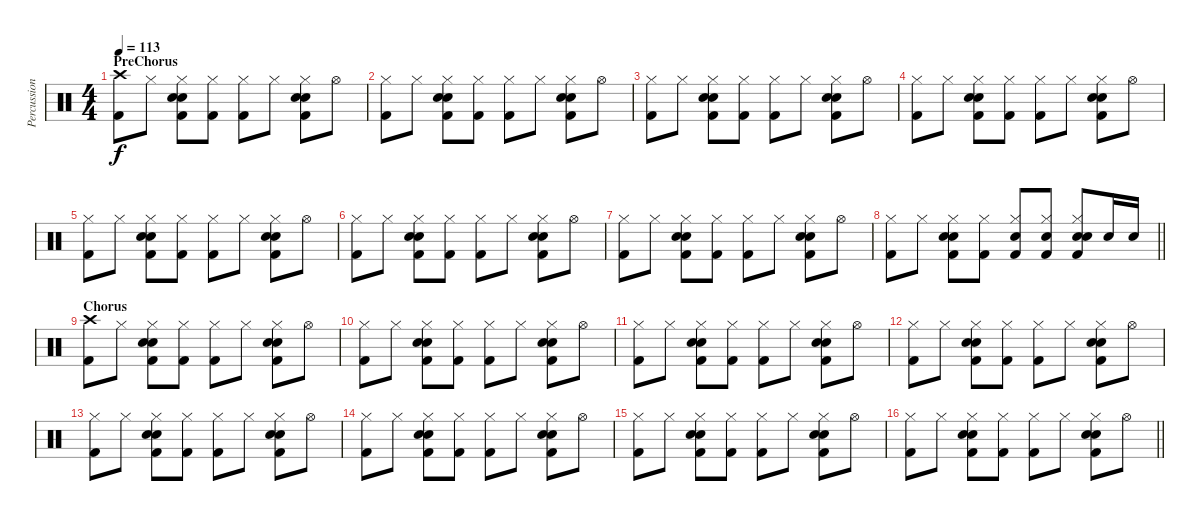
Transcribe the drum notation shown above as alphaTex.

\track ("Percussion" "Percussion") {instrument percussion}
\staff {score}
\articulation defaults
\ts (4 4)
\section ("" "PreChorus")
\tempo 113
\clef neutral
\ks c
("Crash high (hit)" "Kick (hit) 2").8{dy f} "Hi-Hat (closed)".8 ("Hand Clap (hit)" "Hi-Hat (closed)" "Electric Snare (hit)" "Kick (hit) 2").8 ("Hi-Hat (closed)" "Kick (hit) 2").8 ("Hi-Hat (closed)" "Kick (hit) 2").8 "Hi-Hat (closed)".8 ("Hand Clap (hit)" "Hi-Hat (closed)" "Electric Snare (hit)" "Kick (hit) 2").8 "Hi-Hat (open)".8 |
("Hi-Hat (closed)" "Kick (hit) 2").8 "Hi-Hat (closed)".8 ("Hand Clap (hit)" "Hi-Hat (closed)" "Electric Snare (hit)" "Kick (hit) 2").8 ("Hi-Hat (closed)" "Kick (hit) 2").8 ("Hi-Hat (closed)" "Kick (hit) 2").8 "Hi-Hat (closed)".8 ("Hand Clap (hit)" "Hi-Hat (closed)" "Electric Snare (hit)" "Kick (hit) 2").8 "Hi-Hat (open)".8 |
("Hi-Hat (closed)" "Kick (hit) 2").8 "Hi-Hat (closed)".8 ("Hand Clap (hit)" "Hi-Hat (closed)" "Electric Snare (hit)" "Kick (hit) 2").8 ("Hi-Hat (closed)" "Kick (hit) 2").8 ("Hi-Hat (closed)" "Kick (hit) 2").8 "Hi-Hat (closed)".8 ("Hand Clap (hit)" "Hi-Hat (closed)" "Electric Snare (hit)" "Kick (hit) 2").8 "Hi-Hat (open)".8 |
("Hi-Hat (closed)" "Kick (hit) 2").8 "Hi-Hat (closed)".8 ("Hand Clap (hit)" "Hi-Hat (closed)" "Electric Snare (hit)" "Kick (hit) 2").8 ("Hi-Hat (closed)" "Kick (hit) 2").8 ("Hi-Hat (closed)" "Kick (hit) 2").8 "Hi-Hat (closed)".8 ("Hand Clap (hit)" "Hi-Hat (closed)" "Electric Snare (hit)" "Kick (hit) 2").8 "Hi-Hat (open)".8 |
("Hi-Hat (closed)" "Kick (hit) 2").8 "Hi-Hat (closed)".8 ("Hand Clap (hit)" "Hi-Hat (closed)" "Electric Snare (hit)" "Kick (hit) 2").8 ("Hi-Hat (closed)" "Kick (hit) 2").8 ("Hi-Hat (closed)" "Kick (hit) 2").8 "Hi-Hat (closed)".8 ("Hand Clap (hit)" "Hi-Hat (closed)" "Electric Snare (hit)" "Kick (hit) 2").8 "Hi-Hat (open)".8 |
("Hi-Hat (closed)" "Kick (hit) 2").8 "Hi-Hat (closed)".8 ("Hand Clap (hit)" "Hi-Hat (closed)" "Electric Snare (hit)" "Kick (hit) 2").8 ("Hi-Hat (closed)" "Kick (hit) 2").8 ("Hi-Hat (closed)" "Kick (hit) 2").8 "Hi-Hat (closed)".8 ("Hand Clap (hit)" "Hi-Hat (closed)" "Electric Snare (hit)" "Kick (hit) 2").8 "Hi-Hat (open)".8 |
("Hi-Hat (closed)" "Kick (hit) 2").8 "Hi-Hat (closed)".8 ("Hand Clap (hit)" "Hi-Hat (closed)" "Electric Snare (hit)" "Kick (hit) 2").8 ("Hi-Hat (closed)" "Kick (hit) 2").8 ("Hi-Hat (closed)" "Kick (hit) 2").8 "Hi-Hat (closed)".8 ("Hand Clap (hit)" "Hi-Hat (closed)" "Electric Snare (hit)" "Kick (hit) 2").8 "Hi-Hat (open)".8 |
\barLineRight lightlight
("Hi-Hat (closed)" "Kick (hit) 2").8 "Hi-Hat (closed)".8 ("Hand Clap (hit)" "Hi-Hat (closed)" "Electric Snare (hit)" "Kick (hit) 2").8 ("Hi-Hat (closed)" "Kick (hit) 2").8 ("Hi-Hat (closed)" "Electric Snare (hit)" "Kick (hit) 2").8 ("Hi-Hat (closed)" "Electric Snare (hit)" "Kick (hit) 2").8 ("Hand Clap (hit)" "Hi-Hat (closed)" "Electric Snare (hit)" "Kick (hit) 2").8 "Electric Snare (hit)".16 "Electric Snare (hit)".16 |
\section ("" "Chorus")
("Crash high (hit)" "Kick (hit) 2").8 "Hi-Hat (closed)".8 ("Hand Clap (hit)" "Hi-Hat (closed)" "Electric Snare (hit)" "Kick (hit) 2").8 ("Hi-Hat (closed)" "Kick (hit) 2").8 ("Hi-Hat (closed)" "Kick (hit) 2").8 "Hi-Hat (closed)".8 ("Hand Clap (hit)" "Hi-Hat (closed)" "Electric Snare (hit)" "Kick (hit) 2").8 "Hi-Hat (open)".8 |
("Hi-Hat (closed)" "Kick (hit) 2").8 "Hi-Hat (closed)".8 ("Hand Clap (hit)" "Hi-Hat (closed)" "Electric Snare (hit)" "Kick (hit) 2").8 ("Hi-Hat (closed)" "Kick (hit) 2").8 ("Hi-Hat (closed)" "Kick (hit) 2").8 "Hi-Hat (closed)".8 ("Hand Clap (hit)" "Hi-Hat (closed)" "Electric Snare (hit)" "Kick (hit) 2").8 "Hi-Hat (open)".8 |
("Hi-Hat (closed)" "Kick (hit) 2").8 "Hi-Hat (closed)".8 ("Hand Clap (hit)" "Hi-Hat (closed)" "Electric Snare (hit)" "Kick (hit) 2").8 ("Hi-Hat (closed)" "Kick (hit) 2").8 ("Hi-Hat (closed)" "Kick (hit) 2").8 "Hi-Hat (closed)".8 ("Hand Clap (hit)" "Hi-Hat (closed)" "Electric Snare (hit)" "Kick (hit) 2").8 "Hi-Hat (open)".8 |
("Hi-Hat (closed)" "Kick (hit) 2").8 "Hi-Hat (closed)".8 ("Hand Clap (hit)" "Hi-Hat (closed)" "Electric Snare (hit)" "Kick (hit) 2").8 ("Hi-Hat (closed)" "Kick (hit) 2").8 ("Hi-Hat (closed)" "Kick (hit) 2").8 "Hi-Hat (closed)".8 ("Hand Clap (hit)" "Hi-Hat (closed)" "Electric Snare (hit)" "Kick (hit) 2").8 "Hi-Hat (open)".8 |
("Hi-Hat (closed)" "Kick (hit) 2").8 "Hi-Hat (closed)".8 ("Hand Clap (hit)" "Hi-Hat (closed)" "Electric Snare (hit)" "Kick (hit) 2").8 ("Hi-Hat (closed)" "Kick (hit) 2").8 ("Hi-Hat (closed)" "Kick (hit) 2").8 "Hi-Hat (closed)".8 ("Hand Clap (hit)" "Hi-Hat (closed)" "Electric Snare (hit)" "Kick (hit) 2").8 "Hi-Hat (open)".8 |
("Hi-Hat (closed)" "Kick (hit) 2").8 "Hi-Hat (closed)".8 ("Hand Clap (hit)" "Hi-Hat (closed)" "Electric Snare (hit)" "Kick (hit) 2").8 ("Hi-Hat (closed)" "Kick (hit) 2").8 ("Hi-Hat (closed)" "Kick (hit) 2").8 "Hi-Hat (closed)".8 ("Hand Clap (hit)" "Hi-Hat (closed)" "Electric Snare (hit)" "Kick (hit) 2").8 "Hi-Hat (open)".8 |
("Hi-Hat (closed)" "Kick (hit) 2").8 "Hi-Hat (closed)".8 ("Hand Clap (hit)" "Hi-Hat (closed)" "Electric Snare (hit)" "Kick (hit) 2").8 ("Hi-Hat (closed)" "Kick (hit) 2").8 ("Hi-Hat (closed)" "Kick (hit) 2").8 "Hi-Hat (closed)".8 ("Hand Clap (hit)" "Hi-Hat (closed)" "Electric Snare (hit)" "Kick (hit) 2").8 "Hi-Hat (open)".8 |
\barLineRight lightlight
("Hi-Hat (closed)" "Kick (hit) 2").8 "Hi-Hat (closed)".8 ("Hand Clap (hit)" "Hi-Hat (closed)" "Electric Snare (hit)" "Kick (hit) 2").8 ("Hi-Hat (closed)" "Kick (hit) 2").8 ("Hi-Hat (closed)" "Kick (hit) 2").8 "Hi-Hat (closed)".8 ("Hand Clap (hit)" "Hi-Hat (closed)" "Electric Snare (hit)" "Kick (hit) 2").8 "Hi-Hat (open)".8
